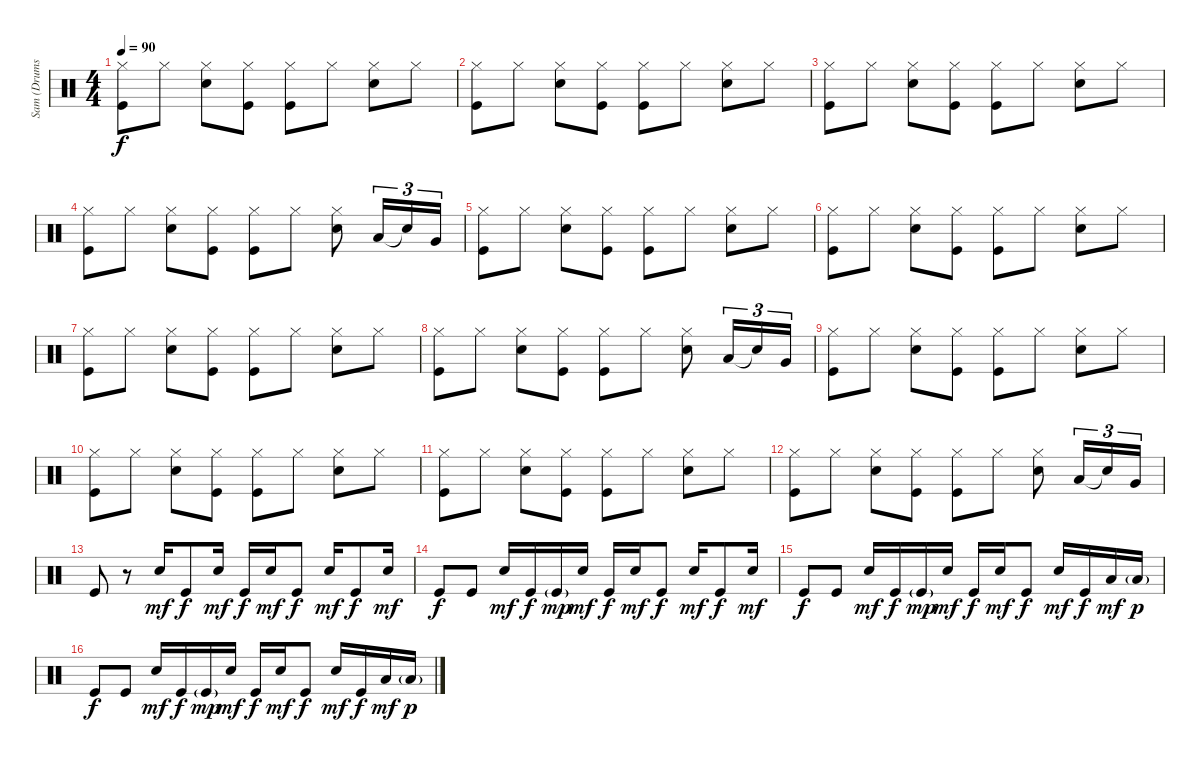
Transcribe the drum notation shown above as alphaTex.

\track ("Sam (Drums)" "Sam (Drums") {instrument percussion}
\staff {score}
\articulation defaults
\ts (4 4)
\tempo 90
\clef neutral
\ks c
("Hi-Hat (closed)" "Kick (hit)").8{dy f} "Hi-Hat (closed)".8 ("Hi-Hat (closed)" "Snare (hit) 2").8 ("Hi-Hat (closed)" "Kick (hit)").8 ("Hi-Hat (closed)" "Kick (hit)").8 "Hi-Hat (closed)".8 ("Hi-Hat (closed)" "Snare (hit) 2").8 "Hi-Hat (closed)".8 |
("Hi-Hat (closed)" "Kick (hit)").8 "Hi-Hat (closed)".8 ("Hi-Hat (closed)" "Snare (hit) 2").8 ("Hi-Hat (closed)" "Kick (hit)").8 ("Hi-Hat (closed)" "Kick (hit)").8 "Hi-Hat (closed)".8 ("Hi-Hat (closed)" "Snare (hit) 2").8 "Hi-Hat (closed)".8 |
("Hi-Hat (closed)" "Kick (hit)").8 "Hi-Hat (closed)".8 ("Hi-Hat (closed)" "Snare (hit) 2").8 ("Hi-Hat (closed)" "Kick (hit)").8 ("Hi-Hat (closed)" "Kick (hit)").8 "Hi-Hat (closed)".8 ("Hi-Hat (closed)" "Snare (hit) 2").8 "Hi-Hat (closed)".8 |
("Hi-Hat (closed)" "Kick (hit)").8 "Hi-Hat (closed)".8 ("Hi-Hat (closed)" "Snare (hit) 2").8 ("Hi-Hat (closed)" "Kick (hit)").8 ("Hi-Hat (closed)" "Kick (hit)").8 "Hi-Hat (closed)".8 ("Hi-Hat (closed)" "Snare (hit) 2").8 "Low Tom (hit)".16{tu (3 2)} "Snare (hit)"{t}.16{tu (3 2)} "Very Low Tom (hit)".16{tu (3 2)} |
("Hi-Hat (closed)" "Kick (hit)").8 "Hi-Hat (closed)".8 ("Hi-Hat (closed)" "Snare (hit) 2").8 ("Hi-Hat (closed)" "Kick (hit)").8 ("Hi-Hat (closed)" "Kick (hit)").8 "Hi-Hat (closed)".8 ("Hi-Hat (closed)" "Snare (hit) 2").8 "Hi-Hat (closed)".8 |
("Hi-Hat (closed)" "Kick (hit)").8 "Hi-Hat (closed)".8 ("Hi-Hat (closed)" "Snare (hit) 2").8 ("Hi-Hat (closed)" "Kick (hit)").8 ("Hi-Hat (closed)" "Kick (hit)").8 "Hi-Hat (closed)".8 ("Hi-Hat (closed)" "Snare (hit) 2").8 "Hi-Hat (closed)".8 |
("Hi-Hat (closed)" "Kick (hit)").8 "Hi-Hat (closed)".8 ("Hi-Hat (closed)" "Snare (hit) 2").8 ("Hi-Hat (closed)" "Kick (hit)").8 ("Hi-Hat (closed)" "Kick (hit)").8 "Hi-Hat (closed)".8 ("Hi-Hat (closed)" "Snare (hit) 2").8 "Hi-Hat (closed)".8 |
("Hi-Hat (closed)" "Kick (hit)").8 "Hi-Hat (closed)".8 ("Hi-Hat (closed)" "Snare (hit) 2").8 ("Hi-Hat (closed)" "Kick (hit)").8 ("Hi-Hat (closed)" "Kick (hit)").8 "Hi-Hat (closed)".8 ("Hi-Hat (closed)" "Snare (hit) 2").8 "Low Tom (hit)".16{tu (3 2)} "Snare (hit)"{t}.16{tu (3 2)} "Very Low Tom (hit)".16{tu (3 2)} |
("Hi-Hat (closed)" "Kick (hit)").8 "Hi-Hat (closed)".8 ("Hi-Hat (closed)" "Snare (hit) 2").8 ("Hi-Hat (closed)" "Kick (hit)").8 ("Hi-Hat (closed)" "Kick (hit)").8 "Hi-Hat (closed)".8 ("Hi-Hat (closed)" "Snare (hit) 2").8 "Hi-Hat (closed)".8 |
("Hi-Hat (closed)" "Kick (hit)").8 "Hi-Hat (closed)".8 ("Hi-Hat (closed)" "Snare (hit) 2").8 ("Hi-Hat (closed)" "Kick (hit)").8 ("Hi-Hat (closed)" "Kick (hit)").8 "Hi-Hat (closed)".8 ("Hi-Hat (closed)" "Snare (hit) 2").8 "Hi-Hat (closed)".8 |
("Hi-Hat (closed)" "Kick (hit)").8 "Hi-Hat (closed)".8 ("Hi-Hat (closed)" "Snare (hit) 2").8 ("Hi-Hat (closed)" "Kick (hit)").8 ("Hi-Hat (closed)" "Kick (hit)").8 "Hi-Hat (closed)".8 ("Hi-Hat (closed)" "Snare (hit) 2").8 "Hi-Hat (closed)".8 |
("Hi-Hat (closed)" "Kick (hit)").8 "Hi-Hat (closed)".8 ("Hi-Hat (closed)" "Snare (hit) 2").8 ("Hi-Hat (closed)" "Kick (hit)").8 ("Hi-Hat (closed)" "Kick (hit)").8 "Hi-Hat (closed)".8 ("Hi-Hat (closed)" "Snare (hit) 2").8 "Low Tom (hit)".16{tu (3 2)} "Snare (hit)"{t}.16{tu (3 2)} "Very Low Tom (hit)".16{tu (3 2)} |
"Kick (hit)".8 r.8 "Snare (hit) 2".16{dy mf} "Kick (hit)".8{dy f} "Snare (hit) 2".16{dy mf} "Kick (hit)".16{dy f} "Snare (hit) 2".16{dy mf} "Kick (hit)".8{dy f} "Snare (hit) 2".16{dy mf} "Kick (hit)".8{dy f} "Snare (hit) 2".16{dy mf} |
"Kick (hit)".8{dy f} "Kick (hit)".8 "Snare (hit) 2".16{dy mf} "Kick (hit)".16{dy f} "Kick (hit)"{g}.16{dy mp} "Snare (hit) 2".16{dy mf} "Kick (hit)".16{dy f} "Snare (hit) 2".16{dy mf} "Kick (hit)".8{dy f} "Snare (hit) 2".16{dy mf} "Kick (hit)".8{dy f} "Snare (hit) 2".16{dy mf} |
"Kick (hit)".8{dy f} "Kick (hit)".8 "Snare (hit) 2".16{dy mf} "Kick (hit)".16{dy f} "Kick (hit)"{g}.16{dy mp} "Snare (hit) 2".16{dy mf} "Kick (hit)".16{dy f} "Snare (hit) 2".16{dy mf} "Kick (hit)".8{dy f} "Snare (hit) 2".16{dy mf} "Kick (hit)".16{dy f} "Low Tom (hit)".16{dy mf} "Low Tom (hit)"{g}.16{dy p} |
"Kick (hit)".8{dy f} "Kick (hit)".8 "Snare (hit) 2".16{dy mf} "Kick (hit)".16{dy f} "Kick (hit)"{g}.16{dy mp} "Snare (hit) 2".16{dy mf} "Kick (hit)".16{dy f} "Snare (hit) 2".16{dy mf} "Kick (hit)".8{dy f} "Snare (hit) 2".16{dy mf} "Kick (hit)".16{dy f} "Low Tom (hit)".16{dy mf} "Low Tom (hit)"{g}.16{dy p}
